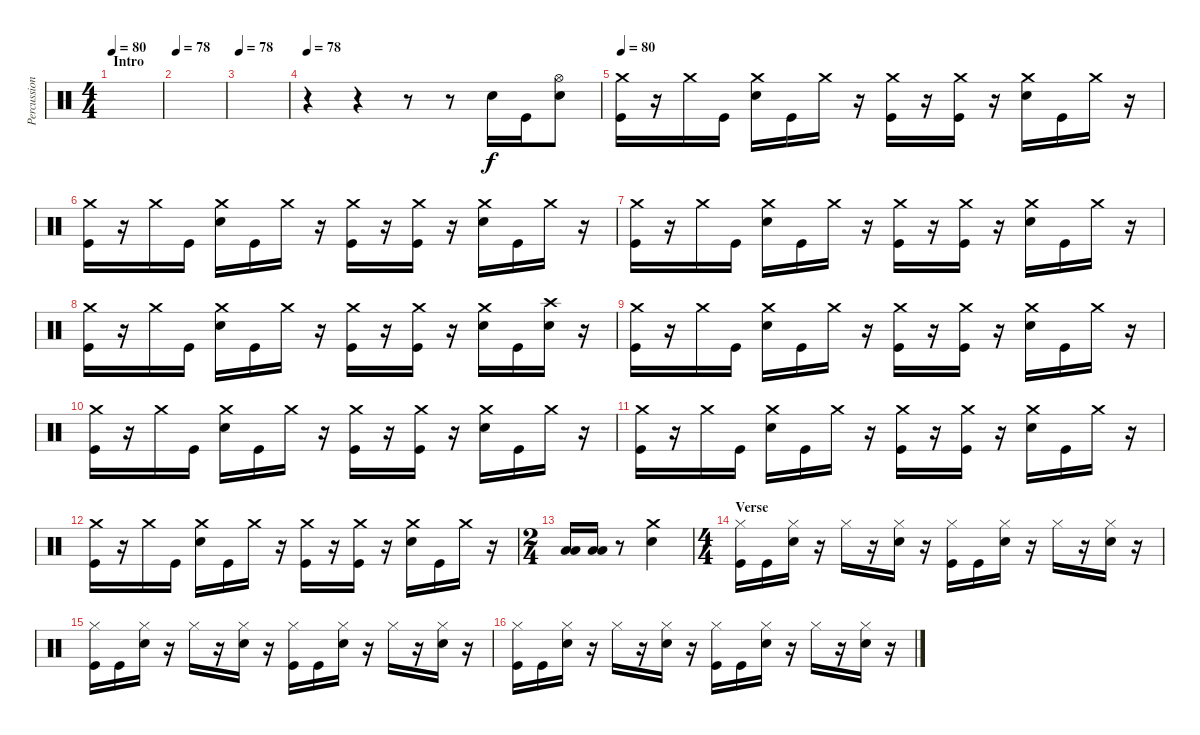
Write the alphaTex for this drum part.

\track ("Percussion" "Percussion") {instrument percussion}
\staff {score}
\articulation defaults
\ts (4 4)
\section ("" "Intro")
\tempo 80
\tempo 78
\tempo 80
\clef neutral
\ks c
|
\tempo 78
|
\tempo 78
|
\tempo 78
r.4 r.4 r.8 r.8 "Snare (hit) 2".16 "Kick (hit)".16 ("Hi-Hat (open)" "Snare (hit) 2").8 |
\tempo 80
("Crash medium (hit)" "Kick (hit)").16 r.16 "Crash medium (hit)".16 "Kick (hit)".16 ("Crash medium (hit)" "Snare (hit) 2").16 "Kick (hit)".16 "Crash medium (hit)".16 r.16 ("Crash medium (hit)" "Kick (hit)").16 r.16 ("Crash medium (hit)" "Kick (hit)").16 r.16 ("Crash medium (hit)" "Snare (hit) 2").16 "Kick (hit)".16 "Crash medium (hit)".16 r.16 |
("Crash medium (hit)" "Kick (hit)").16 r.16 "Crash medium (hit)".16 "Kick (hit)".16 ("Crash medium (hit)" "Snare (hit) 2").16 "Kick (hit)".16 "Crash medium (hit)".16 r.16 ("Crash medium (hit)" "Kick (hit)").16 r.16 ("Crash medium (hit)" "Kick (hit)").16 r.16 ("Crash medium (hit)" "Snare (hit) 2").16 "Kick (hit)".16 "Crash medium (hit)".16 r.16 |
("Crash medium (hit)" "Kick (hit)").16 r.16 "Crash medium (hit)".16 "Kick (hit)".16 ("Crash medium (hit)" "Snare (hit) 2").16 "Kick (hit)".16 "Crash medium (hit)".16 r.16 ("Crash medium (hit)" "Kick (hit)").16 r.16 ("Crash medium (hit)" "Kick (hit)").16 r.16 ("Crash medium (hit)" "Snare (hit) 2").16 "Kick (hit)".16 "Crash medium (hit)".16 r.16 |
("Crash medium (hit)" "Kick (hit)").16 r.16 "Crash medium (hit)".16 "Kick (hit)".16 ("Crash medium (hit)" "Snare (hit) 2").16 "Kick (hit)".16 "Crash medium (hit)".16 r.16 ("Crash medium (hit)" "Kick (hit)").16 r.16 ("Crash medium (hit)" "Kick (hit)").16 r.16 ("Crash medium (hit)" "Snare (hit) 2").16 "Kick (hit)".16 ("Crash high (hit)" "Snare (hit) 2").16 r.16 |
("Crash medium (hit)" "Kick (hit)").16 r.16 "Crash medium (hit)".16 "Kick (hit)".16 ("Crash medium (hit)" "Snare (hit) 2").16 "Kick (hit)".16 "Crash medium (hit)".16 r.16 ("Crash medium (hit)" "Kick (hit)").16 r.16 ("Crash medium (hit)" "Kick (hit)").16 r.16 ("Crash medium (hit)" "Snare (hit) 2").16 "Kick (hit)".16 "Crash medium (hit)".16 r.16 |
("Crash medium (hit)" "Kick (hit)").16 r.16 "Crash medium (hit)".16 "Kick (hit)".16 ("Crash medium (hit)" "Snare (hit) 2").16 "Kick (hit)".16 "Crash medium (hit)".16 r.16 ("Crash medium (hit)" "Kick (hit)").16 r.16 ("Crash medium (hit)" "Kick (hit)").16 r.16 ("Crash medium (hit)" "Snare (hit) 2").16 "Kick (hit)".16 "Crash medium (hit)".16 r.16 |
("Crash medium (hit)" "Kick (hit)").16 r.16 "Crash medium (hit)".16 "Kick (hit)".16 ("Crash medium (hit)" "Snare (hit) 2").16 "Kick (hit)".16 "Crash medium (hit)".16 r.16 ("Crash medium (hit)" "Kick (hit)").16 r.16 ("Crash medium (hit)" "Kick (hit)").16 r.16 ("Crash medium (hit)" "Snare (hit) 2").16 "Kick (hit)".16 "Crash medium (hit)".16 r.16 |
("Crash medium (hit)" "Kick (hit)").16 r.16 "Crash medium (hit)".16 "Kick (hit)".16 ("Crash medium (hit)" "Snare (hit) 2").16 "Kick (hit)".16 "Crash medium (hit)".16 r.16 ("Crash medium (hit)" "Kick (hit)").16 r.16 ("Crash medium (hit)" "Kick (hit)").16 r.16 ("Crash medium (hit)" "Snare (hit) 2").16 "Kick (hit)".16 "Crash medium (hit)".16 r.16 |
\ts (2 4)
("Low Tom (hit)" "Low Floor Tom (hit)").16 ("Low Tom (hit)" "Low Floor Tom (hit)").16 r.8 ("Crash medium (hit)" "Snare (hit) 2").4 |
\ts (4 4)
\section ("" "Verse")
("Hi-Hat (closed)" "Kick (hit)").16 "Kick (hit)".16 ("Hi-Hat (closed)" "Snare (hit) 2").16 r.16 "Hi-Hat (closed)".16 r.16 ("Hi-Hat (closed)" "Snare (hit) 2").16 r.16 ("Hi-Hat (closed)" "Kick (hit)").16 "Kick (hit)".16 ("Hi-Hat (closed)" "Snare (hit) 2").16 r.16 "Hi-Hat (closed)".16 r.16 ("Hi-Hat (closed)" "Snare (hit) 2").16 r.16 |
("Hi-Hat (closed)" "Kick (hit)").16 "Kick (hit)".16 ("Hi-Hat (closed)" "Snare (hit) 2").16 r.16 "Hi-Hat (closed)".16 r.16 ("Hi-Hat (closed)" "Snare (hit) 2").16 r.16 ("Hi-Hat (closed)" "Kick (hit)").16 "Kick (hit)".16 ("Hi-Hat (closed)" "Snare (hit) 2").16 r.16 "Hi-Hat (closed)".16 r.16 ("Hi-Hat (closed)" "Snare (hit) 2").16 r.16 |
("Hi-Hat (closed)" "Kick (hit)").16 "Kick (hit)".16 ("Hi-Hat (closed)" "Snare (hit) 2").16 r.16 "Hi-Hat (closed)".16 r.16 ("Hi-Hat (closed)" "Snare (hit) 2").16 r.16 ("Hi-Hat (closed)" "Kick (hit)").16 "Kick (hit)".16 ("Hi-Hat (closed)" "Snare (hit) 2").16 r.16 "Hi-Hat (closed)".16 r.16 ("Hi-Hat (closed)" "Snare (hit) 2").16 r.16
